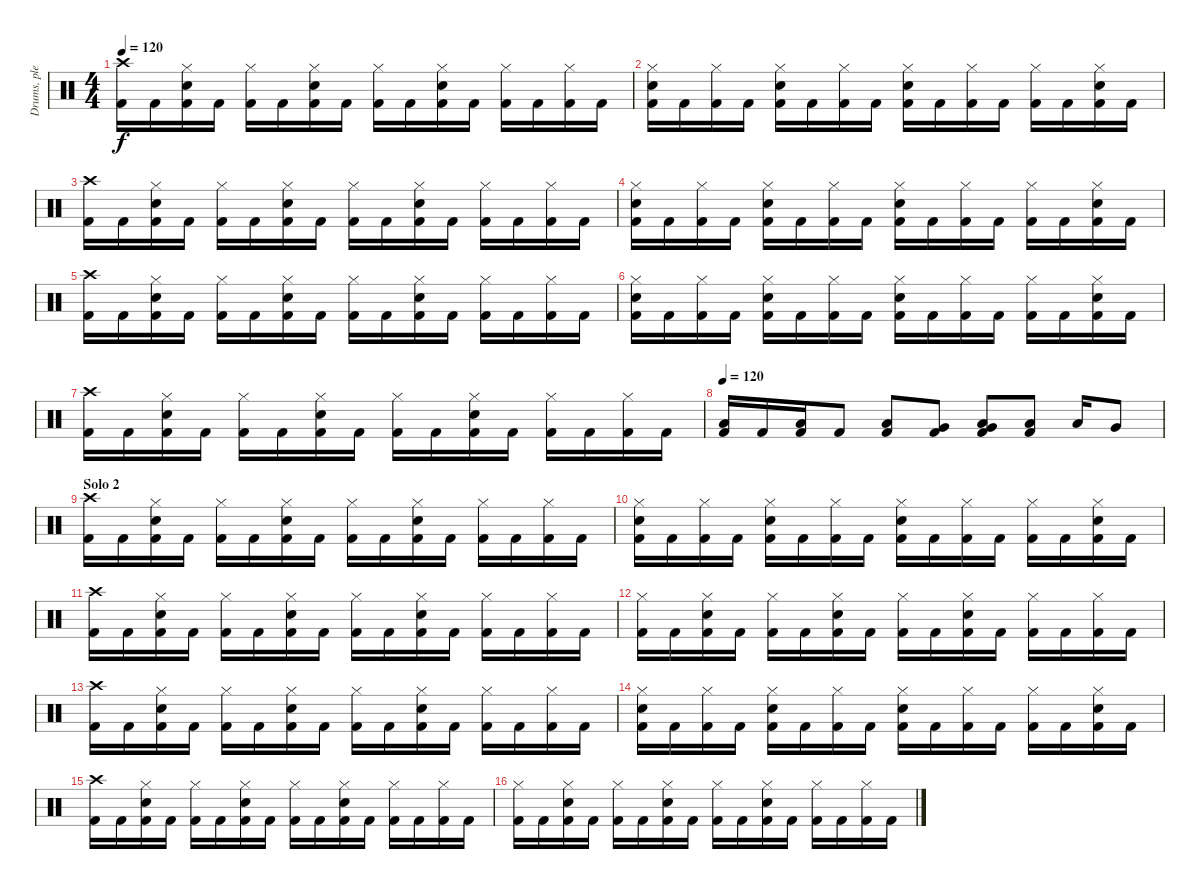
\track ("Drums, please" "Drums, ple") {instrument percussion}
\staff {score}
\articulation defaults
\ts (4 4)
\tempo 120
\clef neutral
\ks c
("Kick (hit) 2" "Crash high (hit)").16{dy f} "Kick (hit) 2".16 ("Kick (hit) 2" "Electric Snare (hit)" "Hi-Hat (closed)").16 "Kick (hit) 2".16 ("Kick (hit) 2" "Hi-Hat (closed)").16 "Kick (hit) 2".16 ("Kick (hit) 2" "Electric Snare (hit)" "Hi-Hat (closed)").16 "Kick (hit) 2".16 ("Kick (hit) 2" "Hi-Hat (closed)").16 "Kick (hit) 2".16 ("Kick (hit) 2" "Electric Snare (hit)" "Hi-Hat (closed)").16 "Kick (hit) 2".16 ("Kick (hit) 2" "Hi-Hat (closed)").16 "Kick (hit) 2".16 ("Kick (hit) 2" "Hi-Hat (closed)").16 "Kick (hit) 2".16 |
("Kick (hit) 2" "Electric Snare (hit)" "Hi-Hat (closed)").16 "Kick (hit) 2".16 ("Kick (hit) 2" "Hi-Hat (closed)").16 "Kick (hit) 2".16 ("Kick (hit) 2" "Electric Snare (hit)" "Hi-Hat (closed)").16 "Kick (hit) 2".16 ("Kick (hit) 2" "Hi-Hat (closed)").16 "Kick (hit) 2".16 ("Kick (hit) 2" "Electric Snare (hit)" "Hi-Hat (closed)").16 "Kick (hit) 2".16 ("Kick (hit) 2" "Hi-Hat (closed)").16 "Kick (hit) 2".16 ("Kick (hit) 2" "Hi-Hat (closed)").16 "Kick (hit) 2".16 ("Kick (hit) 2" "Electric Snare (hit)" "Hi-Hat (closed)").16 "Kick (hit) 2".16 |
("Kick (hit) 2" "Crash high (hit)").16 "Kick (hit) 2".16 ("Kick (hit) 2" "Electric Snare (hit)" "Hi-Hat (closed)").16 "Kick (hit) 2".16 ("Kick (hit) 2" "Hi-Hat (closed)").16 "Kick (hit) 2".16 ("Kick (hit) 2" "Electric Snare (hit)" "Hi-Hat (closed)").16 "Kick (hit) 2".16 ("Kick (hit) 2" "Hi-Hat (closed)").16 "Kick (hit) 2".16 ("Kick (hit) 2" "Electric Snare (hit)" "Hi-Hat (closed)").16 "Kick (hit) 2".16 ("Kick (hit) 2" "Hi-Hat (closed)").16 "Kick (hit) 2".16 ("Kick (hit) 2" "Hi-Hat (closed)").16 "Kick (hit) 2".16 |
("Kick (hit) 2" "Electric Snare (hit)" "Hi-Hat (closed)").16 "Kick (hit) 2".16 ("Kick (hit) 2" "Hi-Hat (closed)").16 "Kick (hit) 2".16 ("Kick (hit) 2" "Electric Snare (hit)" "Hi-Hat (closed)").16 "Kick (hit) 2".16 ("Kick (hit) 2" "Hi-Hat (closed)").16 "Kick (hit) 2".16 ("Kick (hit) 2" "Electric Snare (hit)" "Hi-Hat (closed)").16 "Kick (hit) 2".16 ("Kick (hit) 2" "Hi-Hat (closed)").16 "Kick (hit) 2".16 ("Kick (hit) 2" "Hi-Hat (closed)").16 "Kick (hit) 2".16 ("Kick (hit) 2" "Electric Snare (hit)" "Hi-Hat (closed)").16 "Kick (hit) 2".16 |
("Kick (hit) 2" "Crash high (hit)").16 "Kick (hit) 2".16 ("Kick (hit) 2" "Electric Snare (hit)" "Hi-Hat (closed)").16 "Kick (hit) 2".16 ("Kick (hit) 2" "Hi-Hat (closed)").16 "Kick (hit) 2".16 ("Kick (hit) 2" "Electric Snare (hit)" "Hi-Hat (closed)").16 "Kick (hit) 2".16 ("Kick (hit) 2" "Hi-Hat (closed)").16 "Kick (hit) 2".16 ("Kick (hit) 2" "Electric Snare (hit)" "Hi-Hat (closed)").16 "Kick (hit) 2".16 ("Kick (hit) 2" "Hi-Hat (closed)").16 "Kick (hit) 2".16 ("Kick (hit) 2" "Hi-Hat (closed)").16 "Kick (hit) 2".16 |
("Kick (hit) 2" "Electric Snare (hit)" "Hi-Hat (closed)").16 "Kick (hit) 2".16 ("Kick (hit) 2" "Hi-Hat (closed)").16 "Kick (hit) 2".16 ("Kick (hit) 2" "Electric Snare (hit)" "Hi-Hat (closed)").16 "Kick (hit) 2".16 ("Kick (hit) 2" "Hi-Hat (closed)").16 "Kick (hit) 2".16 ("Kick (hit) 2" "Electric Snare (hit)" "Hi-Hat (closed)").16 "Kick (hit) 2".16 ("Kick (hit) 2" "Hi-Hat (closed)").16 "Kick (hit) 2".16 ("Kick (hit) 2" "Hi-Hat (closed)").16 "Kick (hit) 2".16 ("Kick (hit) 2" "Electric Snare (hit)" "Hi-Hat (closed)").16 "Kick (hit) 2".16 |
("Kick (hit) 2" "Crash high (hit)").16 "Kick (hit) 2".16 ("Kick (hit) 2" "Electric Snare (hit)" "Hi-Hat (closed)").16 "Kick (hit) 2".16 ("Kick (hit) 2" "Hi-Hat (closed)").16 "Kick (hit) 2".16 ("Kick (hit) 2" "Electric Snare (hit)" "Hi-Hat (closed)").16 "Kick (hit) 2".16 ("Kick (hit) 2" "Hi-Hat (closed)").16 "Kick (hit) 2".16 ("Kick (hit) 2" "Electric Snare (hit)" "Hi-Hat (closed)").16 "Kick (hit) 2".16 ("Kick (hit) 2" "Hi-Hat (closed)").16 "Kick (hit) 2".16 ("Kick (hit) 2" "Hi-Hat (closed)").16 "Kick (hit) 2".16 |
\tempo 120
("Kick (hit) 2" "Low Floor Tom (hit)").16 "Kick (hit) 2".16 ("Kick (hit) 2" "Low Floor Tom (hit)").16 "Kick (hit) 2".8 ("Kick (hit) 2" "Low Tom (hit)").8 ("Kick (hit) 2" "Very Low Tom (hit)").8 ("Kick (hit) 2" "Low Tom (hit)" "Very Low Tom (hit)").8 ("Kick (hit) 2" "Low Tom (hit)").8 "Low Tom (hit)".16 "Very Low Tom (hit)".8 |
\section ("" "Solo 2")
("Kick (hit) 2" "Crash high (hit)").16 "Kick (hit) 2".16 ("Kick (hit) 2" "Electric Snare (hit)" "Hi-Hat (closed)").16 "Kick (hit) 2".16 ("Kick (hit) 2" "Hi-Hat (closed)").16 "Kick (hit) 2".16 ("Kick (hit) 2" "Electric Snare (hit)" "Hi-Hat (closed)").16 "Kick (hit) 2".16 ("Kick (hit) 2" "Hi-Hat (closed)").16 "Kick (hit) 2".16 ("Kick (hit) 2" "Electric Snare (hit)" "Hi-Hat (closed)").16 "Kick (hit) 2".16 ("Kick (hit) 2" "Hi-Hat (closed)").16 "Kick (hit) 2".16 ("Kick (hit) 2" "Hi-Hat (closed)").16 "Kick (hit) 2".16 |
("Kick (hit) 2" "Electric Snare (hit)" "Hi-Hat (closed)").16 "Kick (hit) 2".16 ("Kick (hit) 2" "Hi-Hat (closed)").16 "Kick (hit) 2".16 ("Kick (hit) 2" "Electric Snare (hit)" "Hi-Hat (closed)").16 "Kick (hit) 2".16 ("Kick (hit) 2" "Hi-Hat (closed)").16 "Kick (hit) 2".16 ("Kick (hit) 2" "Electric Snare (hit)" "Hi-Hat (closed)").16 "Kick (hit) 2".16 ("Kick (hit) 2" "Hi-Hat (closed)").16 "Kick (hit) 2".16 ("Kick (hit) 2" "Hi-Hat (closed)").16 "Kick (hit) 2".16 ("Kick (hit) 2" "Electric Snare (hit)" "Hi-Hat (closed)").16 "Kick (hit) 2".16 |
("Kick (hit) 2" "Crash high (hit)").16 "Kick (hit) 2".16 ("Kick (hit) 2" "Electric Snare (hit)" "Hi-Hat (closed)").16 "Kick (hit) 2".16 ("Kick (hit) 2" "Hi-Hat (closed)").16 "Kick (hit) 2".16 ("Kick (hit) 2" "Electric Snare (hit)" "Hi-Hat (closed)").16 "Kick (hit) 2".16 ("Kick (hit) 2" "Hi-Hat (closed)").16 "Kick (hit) 2".16 ("Kick (hit) 2" "Electric Snare (hit)" "Hi-Hat (closed)").16 "Kick (hit) 2".16 ("Kick (hit) 2" "Hi-Hat (closed)").16 "Kick (hit) 2".16 ("Kick (hit) 2" "Hi-Hat (closed)").16 "Kick (hit) 2".16 |
("Kick (hit) 2" "Hi-Hat (closed)").16 "Kick (hit) 2".16 ("Kick (hit) 2" "Electric Snare (hit)" "Hi-Hat (closed)").16 "Kick (hit) 2".16 ("Kick (hit) 2" "Hi-Hat (closed)").16 "Kick (hit) 2".16 ("Kick (hit) 2" "Electric Snare (hit)" "Hi-Hat (closed)").16 "Kick (hit) 2".16 ("Kick (hit) 2" "Hi-Hat (closed)").16 "Kick (hit) 2".16 ("Kick (hit) 2" "Electric Snare (hit)" "Hi-Hat (closed)").16 "Kick (hit) 2".16 ("Kick (hit) 2" "Hi-Hat (closed)").16 "Kick (hit) 2".16 ("Kick (hit) 2" "Hi-Hat (closed)").16 "Kick (hit) 2".16 |
("Kick (hit) 2" "Crash high (hit)").16 "Kick (hit) 2".16 ("Kick (hit) 2" "Electric Snare (hit)" "Hi-Hat (closed)").16 "Kick (hit) 2".16 ("Kick (hit) 2" "Hi-Hat (closed)").16 "Kick (hit) 2".16 ("Kick (hit) 2" "Electric Snare (hit)" "Hi-Hat (closed)").16 "Kick (hit) 2".16 ("Kick (hit) 2" "Hi-Hat (closed)").16 "Kick (hit) 2".16 ("Kick (hit) 2" "Electric Snare (hit)" "Hi-Hat (closed)").16 "Kick (hit) 2".16 ("Kick (hit) 2" "Hi-Hat (closed)").16 "Kick (hit) 2".16 ("Kick (hit) 2" "Hi-Hat (closed)").16 "Kick (hit) 2".16 |
("Kick (hit) 2" "Electric Snare (hit)" "Hi-Hat (closed)").16 "Kick (hit) 2".16 ("Kick (hit) 2" "Hi-Hat (closed)").16 "Kick (hit) 2".16 ("Kick (hit) 2" "Electric Snare (hit)" "Hi-Hat (closed)").16 "Kick (hit) 2".16 ("Kick (hit) 2" "Hi-Hat (closed)").16 "Kick (hit) 2".16 ("Kick (hit) 2" "Electric Snare (hit)" "Hi-Hat (closed)").16 "Kick (hit) 2".16 ("Kick (hit) 2" "Hi-Hat (closed)").16 "Kick (hit) 2".16 ("Kick (hit) 2" "Hi-Hat (closed)").16 "Kick (hit) 2".16 ("Kick (hit) 2" "Electric Snare (hit)" "Hi-Hat (closed)").16 "Kick (hit) 2".16 |
("Kick (hit) 2" "Crash high (hit)").16 "Kick (hit) 2".16 ("Kick (hit) 2" "Electric Snare (hit)" "Hi-Hat (closed)").16 "Kick (hit) 2".16 ("Kick (hit) 2" "Hi-Hat (closed)").16 "Kick (hit) 2".16 ("Kick (hit) 2" "Electric Snare (hit)" "Hi-Hat (closed)").16 "Kick (hit) 2".16 ("Kick (hit) 2" "Hi-Hat (closed)").16 "Kick (hit) 2".16 ("Kick (hit) 2" "Electric Snare (hit)" "Hi-Hat (closed)").16 "Kick (hit) 2".16 ("Kick (hit) 2" "Hi-Hat (closed)").16 "Kick (hit) 2".16 ("Kick (hit) 2" "Hi-Hat (closed)").16 "Kick (hit) 2".16 |
("Kick (hit) 2" "Hi-Hat (closed)").16 "Kick (hit) 2".16 ("Kick (hit) 2" "Electric Snare (hit)" "Hi-Hat (closed)").16 "Kick (hit) 2".16 ("Kick (hit) 2" "Hi-Hat (closed)").16 "Kick (hit) 2".16 ("Kick (hit) 2" "Electric Snare (hit)" "Hi-Hat (closed)").16 "Kick (hit) 2".16 ("Kick (hit) 2" "Hi-Hat (closed)").16 "Kick (hit) 2".16 ("Kick (hit) 2" "Electric Snare (hit)" "Hi-Hat (closed)").16 "Kick (hit) 2".16 ("Kick (hit) 2" "Hi-Hat (closed)").16 "Kick (hit) 2".16 ("Kick (hit) 2" "Hi-Hat (closed)").16 "Kick (hit) 2".16
